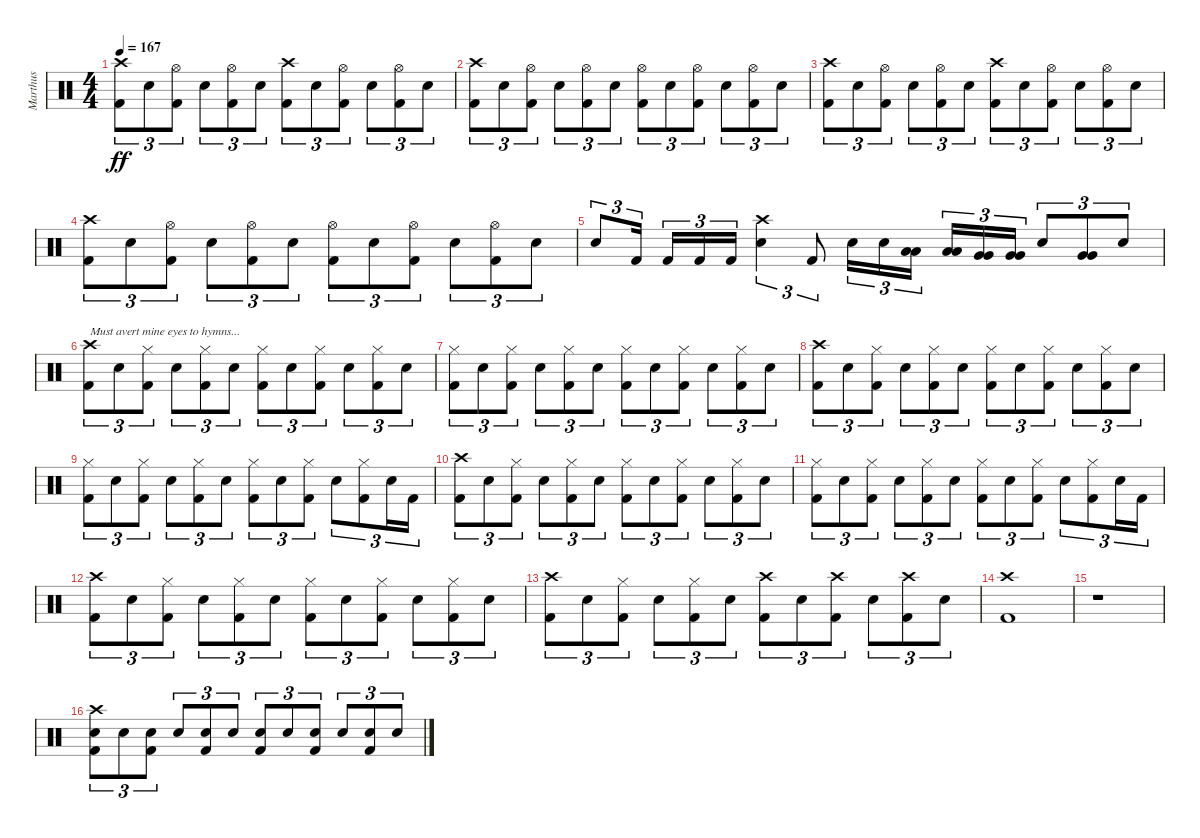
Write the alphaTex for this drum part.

\track ("Marthus" "Marthus") {instrument percussion}
\staff {score}
\articulation defaults
\ts (4 4)
\tempo 167
\clef neutral
\ks c
("Crash high (hit)" "Kick (hit) 2").8{tu (3 2) dy ff} "Electric Snare (hit)".8{tu (3 2)} ("Hi-Hat (open)" "Kick (hit) 2").8{tu (3 2)} "Electric Snare (hit)".8{tu (3 2)} ("Hi-Hat (open)" "Kick (hit) 2").8{tu (3 2)} "Electric Snare (hit)".8{tu (3 2)} ("Crash high (hit)" "Kick (hit) 2").8{tu (3 2)} "Electric Snare (hit)".8{tu (3 2)} ("Hi-Hat (open)" "Kick (hit) 2").8{tu (3 2)} "Electric Snare (hit)".8{tu (3 2)} ("Hi-Hat (open)" "Kick (hit) 2").8{tu (3 2)} "Electric Snare (hit)".8{tu (3 2)} |
("Crash high (hit)" "Kick (hit) 2").8{tu (3 2)} "Electric Snare (hit)".8{tu (3 2)} ("Hi-Hat (open)" "Kick (hit) 2").8{tu (3 2)} "Electric Snare (hit)".8{tu (3 2)} ("Hi-Hat (open)" "Kick (hit) 2").8{tu (3 2)} "Electric Snare (hit)".8{tu (3 2)} ("Hi-Hat (open)" "Kick (hit) 2").8{tu (3 2)} "Electric Snare (hit)".8{tu (3 2)} ("Hi-Hat (open)" "Kick (hit) 2").8{tu (3 2)} "Electric Snare (hit)".8{tu (3 2)} ("Hi-Hat (open)" "Kick (hit) 2").8{tu (3 2)} "Electric Snare (hit)".8{tu (3 2)} |
("Crash high (hit)" "Kick (hit) 2").8{tu (3 2)} "Electric Snare (hit)".8{tu (3 2)} ("Hi-Hat (open)" "Kick (hit) 2").8{tu (3 2)} "Electric Snare (hit)".8{tu (3 2)} ("Hi-Hat (open)" "Kick (hit) 2").8{tu (3 2)} "Electric Snare (hit)".8{tu (3 2)} ("Crash high (hit)" "Kick (hit) 2").8{tu (3 2)} "Electric Snare (hit)".8{tu (3 2)} ("Hi-Hat (open)" "Kick (hit) 2").8{tu (3 2)} "Electric Snare (hit)".8{tu (3 2)} ("Hi-Hat (open)" "Kick (hit) 2").8{tu (3 2)} "Electric Snare (hit)".8{tu (3 2)} |
("Crash high (hit)" "Kick (hit) 2").8{tu (3 2)} "Electric Snare (hit)".8{tu (3 2)} ("Hi-Hat (open)" "Kick (hit) 2").8{tu (3 2)} "Electric Snare (hit)".8{tu (3 2)} ("Hi-Hat (open)" "Kick (hit) 2").8{tu (3 2)} "Electric Snare (hit)".8{tu (3 2)} ("Hi-Hat (open)" "Kick (hit) 2").8{tu (3 2)} "Electric Snare (hit)".8{tu (3 2)} ("Hi-Hat (open)" "Kick (hit) 2").8{tu (3 2)} "Electric Snare (hit)".8{tu (3 2)} ("Hi-Hat (open)" "Kick (hit) 2").8{tu (3 2)} "Electric Snare (hit)".8{tu (3 2)} |
"Electric Snare (hit)".8{tu (3 2)} "Kick (hit) 2".16{tu (3 2) beam splitsecondary} "Kick (hit) 2".16{tu (3 2)} "Kick (hit) 2".16{tu (3 2)} "Kick (hit) 2".16{tu (3 2)} ("Crash high (hit)" "Electric Snare (hit)").4{tu (3 2)} "Kick (hit) 2".8{tu (3 2)} "Electric Snare (hit)".16{tu (3 2)} "Electric Snare (hit)".16{tu (3 2)} ("Low Tom (hit)" "Low Tom (hit)").16{tu (3 2) beam splitsecondary} ("Low Tom (hit)" "Low Tom (hit)").16{tu (3 2)} ("Very Low Tom (hit)" "Very Low Tom (hit)").16{tu (3 2)} ("Very Low Tom (hit)" "Very Low Tom (hit)").16{tu (3 2)} "Electric Snare (hit)".8{tu (3 2)} ("Very Low Tom (hit)" "Very Low Tom (hit)").8{tu (3 2)} "Electric Snare (hit)".8{tu (3 2)} |
("Crash high (hit)" "Kick (hit) 2").8{tu (3 2) txt "Must avert mine eyes to hymns..."} "Electric Snare (hit)".8{tu (3 2)} ("Hi-Hat (closed)" "Kick (hit) 2").8{tu (3 2)} "Electric Snare (hit)".8{tu (3 2)} ("Hi-Hat (closed)" "Kick (hit) 2").8{tu (3 2)} "Electric Snare (hit)".8{tu (3 2)} ("Hi-Hat (closed)" "Kick (hit) 2").8{tu (3 2)} "Electric Snare (hit)".8{tu (3 2)} ("Hi-Hat (closed)" "Kick (hit) 2").8{tu (3 2)} "Electric Snare (hit)".8{tu (3 2)} ("Hi-Hat (closed)" "Kick (hit) 2").8{tu (3 2)} "Electric Snare (hit)".8{tu (3 2)} |
("Hi-Hat (closed)" "Kick (hit) 2").8{tu (3 2)} "Electric Snare (hit)".8{tu (3 2)} ("Hi-Hat (closed)" "Kick (hit) 2").8{tu (3 2)} "Electric Snare (hit)".8{tu (3 2)} ("Hi-Hat (closed)" "Kick (hit) 2").8{tu (3 2)} "Electric Snare (hit)".8{tu (3 2)} ("Hi-Hat (closed)" "Kick (hit) 2").8{tu (3 2)} "Electric Snare (hit)".8{tu (3 2)} ("Hi-Hat (closed)" "Kick (hit) 2").8{tu (3 2)} "Electric Snare (hit)".8{tu (3 2)} ("Hi-Hat (closed)" "Kick (hit) 2").8{tu (3 2)} "Electric Snare (hit)".8{tu (3 2)} |
("Crash high (hit)" "Kick (hit) 2").8{tu (3 2)} "Electric Snare (hit)".8{tu (3 2)} ("Hi-Hat (closed)" "Kick (hit) 2").8{tu (3 2)} "Electric Snare (hit)".8{tu (3 2)} ("Hi-Hat (closed)" "Kick (hit) 2").8{tu (3 2)} "Electric Snare (hit)".8{tu (3 2)} ("Hi-Hat (closed)" "Kick (hit) 2").8{tu (3 2)} "Electric Snare (hit)".8{tu (3 2)} ("Hi-Hat (closed)" "Kick (hit) 2").8{tu (3 2)} "Electric Snare (hit)".8{tu (3 2)} ("Hi-Hat (closed)" "Kick (hit) 2").8{tu (3 2)} "Electric Snare (hit)".8{tu (3 2)} |
("Hi-Hat (closed)" "Kick (hit) 2").8{tu (3 2)} "Electric Snare (hit)".8{tu (3 2)} ("Hi-Hat (closed)" "Kick (hit) 2").8{tu (3 2)} "Electric Snare (hit)".8{tu (3 2)} ("Hi-Hat (closed)" "Kick (hit) 2").8{tu (3 2)} "Electric Snare (hit)".8{tu (3 2)} ("Hi-Hat (closed)" "Kick (hit) 2").8{tu (3 2)} "Electric Snare (hit)".8{tu (3 2)} ("Hi-Hat (closed)" "Kick (hit) 2").8{tu (3 2)} "Electric Snare (hit)".8{tu (3 2)} ("Hi-Hat (closed)" "Kick (hit) 2").8{tu (3 2)} "Electric Snare (hit)".16{tu (3 2)} "Kick (hit) 2".16{tu (3 2)} |
("Crash high (hit)" "Kick (hit) 2").8{tu (3 2)} "Electric Snare (hit)".8{tu (3 2)} ("Hi-Hat (closed)" "Kick (hit) 2").8{tu (3 2)} "Electric Snare (hit)".8{tu (3 2)} ("Hi-Hat (closed)" "Kick (hit) 2").8{tu (3 2)} "Electric Snare (hit)".8{tu (3 2)} ("Hi-Hat (closed)" "Kick (hit) 2").8{tu (3 2)} "Electric Snare (hit)".8{tu (3 2)} ("Hi-Hat (closed)" "Kick (hit) 2").8{tu (3 2)} "Electric Snare (hit)".8{tu (3 2)} ("Hi-Hat (closed)" "Kick (hit) 2").8{tu (3 2)} "Electric Snare (hit)".8{tu (3 2)} |
("Hi-Hat (closed)" "Kick (hit) 2").8{tu (3 2)} "Electric Snare (hit)".8{tu (3 2)} ("Hi-Hat (closed)" "Kick (hit) 2").8{tu (3 2)} "Electric Snare (hit)".8{tu (3 2)} ("Hi-Hat (closed)" "Kick (hit) 2").8{tu (3 2)} "Electric Snare (hit)".8{tu (3 2)} ("Hi-Hat (closed)" "Kick (hit) 2").8{tu (3 2)} "Electric Snare (hit)".8{tu (3 2)} ("Hi-Hat (closed)" "Kick (hit) 2").8{tu (3 2)} "Electric Snare (hit)".8{tu (3 2)} ("Hi-Hat (closed)" "Kick (hit) 2").8{tu (3 2)} "Electric Snare (hit)".16{tu (3 2)} "Kick (hit) 2".16{tu (3 2)} |
("Crash high (hit)" "Kick (hit) 2").8{tu (3 2)} "Electric Snare (hit)".8{tu (3 2)} ("Hi-Hat (closed)" "Kick (hit) 2").8{tu (3 2)} "Electric Snare (hit)".8{tu (3 2)} ("Hi-Hat (closed)" "Kick (hit) 2").8{tu (3 2)} "Electric Snare (hit)".8{tu (3 2)} ("Hi-Hat (closed)" "Kick (hit) 2").8{tu (3 2)} "Electric Snare (hit)".8{tu (3 2)} ("Hi-Hat (closed)" "Kick (hit) 2").8{tu (3 2)} "Electric Snare (hit)".8{tu (3 2)} ("Hi-Hat (closed)" "Kick (hit) 2").8{tu (3 2)} "Electric Snare (hit)".8{tu (3 2)} |
("Crash high (hit)" "Kick (hit) 2").8{tu (3 2)} "Electric Snare (hit)".8{tu (3 2)} ("Hi-Hat (closed)" "Kick (hit) 2").8{tu (3 2)} "Electric Snare (hit)".8{tu (3 2)} ("Hi-Hat (closed)" "Kick (hit) 2").8{tu (3 2)} "Electric Snare (hit)".8{tu (3 2)} ("Crash high (hit)" "Kick (hit) 2").8{tu (3 2)} "Electric Snare (hit)".8{tu (3 2)} ("Crash high (hit)" "Kick (hit) 2").8{tu (3 2)} "Electric Snare (hit)".8{tu (3 2)} ("Crash high (hit)" "Kick (hit) 2").8{tu (3 2)} "Electric Snare (hit)".8{tu (3 2)} |
("Crash high (hit)" "Kick (hit) 2").1 |
r.1 |
("Crash high (hit)" "Electric Snare (hit)" "Kick (hit) 2").8{tu (3 2)} "Electric Snare (hit)".8{tu (3 2)} ("Electric Snare (hit)" "Kick (hit) 2").8{tu (3 2)} "Electric Snare (hit)".8{tu (3 2)} ("Electric Snare (hit)" "Kick (hit) 2").8{tu (3 2)} "Electric Snare (hit)".8{tu (3 2)} ("Electric Snare (hit)" "Kick (hit) 2").8{tu (3 2)} "Electric Snare (hit)".8{tu (3 2)} ("Electric Snare (hit)" "Kick (hit) 2").8{tu (3 2)} "Electric Snare (hit)".8{tu (3 2)} ("Electric Snare (hit)" "Kick (hit) 2").8{tu (3 2)} "Electric Snare (hit)".8{tu (3 2)}
